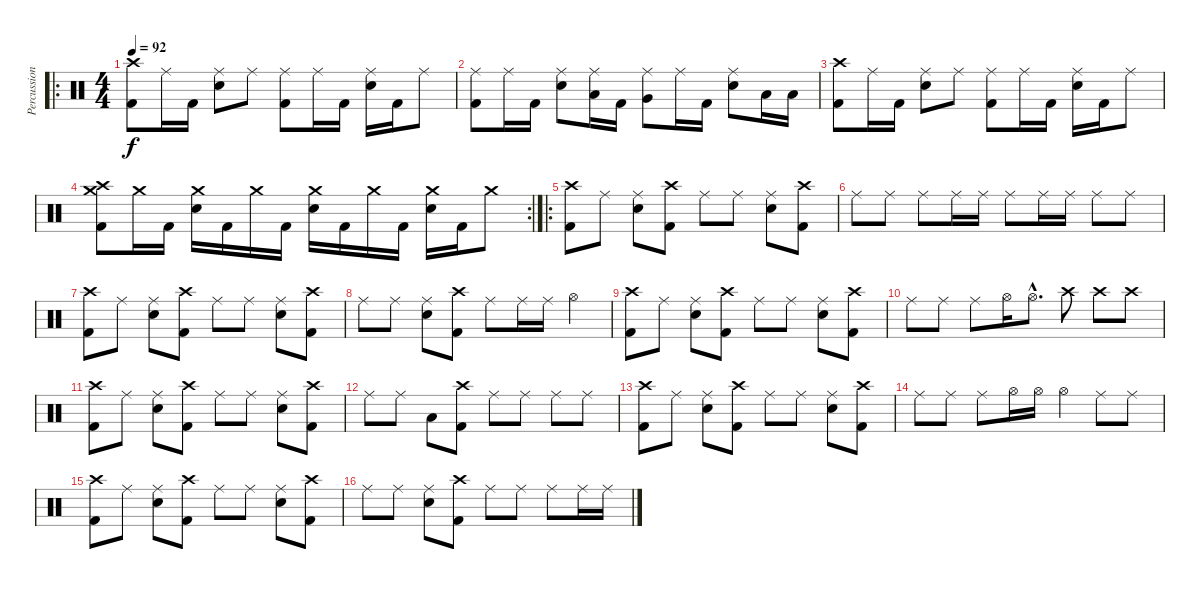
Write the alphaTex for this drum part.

\track ("Percussions" "Percussion") {instrument percussion}
\staff {score}
\articulation defaults
\ro
\ts (4 4)
\tempo 92
\clef neutral
\ks c
("Crash high (hit)" "Kick (hit) 2").8{dy f} "Ride (middle)".16 "Kick (hit) 2".16 ("Ride (middle)" "Electric Snare (hit)").8 "Ride (middle)".8 ("Ride (middle)" "Kick (hit) 2").8 "Ride (middle)".16 "Kick (hit) 2".16 ("Ride (middle)" "Electric Snare (hit)").16 "Kick (hit) 2".16 "Ride (middle)".8 |
("Ride (middle)" "Kick (hit) 2").8 "Ride (middle)".16 "Kick (hit) 2".16 ("Ride (middle)" "Electric Snare (hit)").8 ("Ride (middle)" "Low Tom (hit)").16 "Kick (hit) 2".16 ("Ride (middle)" "Very Low Tom (hit)").8 "Ride (middle)".16 "Kick (hit) 2".16 ("Ride (middle)" "Electric Snare (hit)").8 "Low Floor Tom (hit)".16 "Low Floor Tom (hit)".16 |
("Crash high (hit)" "Kick (hit) 2").8 "Ride (middle)".16 "Kick (hit) 2".16 ("Ride (middle)" "Electric Snare (hit)").8 "Ride (middle)".8 ("Ride (middle)" "Kick (hit) 2").8 "Ride (middle)".16 "Kick (hit) 2".16 ("Ride (middle)" "Electric Snare (hit)").16 "Kick (hit) 2".16 "Ride (middle)".8 |
\rc 2
("Crash high (hit)" "Crash medium (hit)" "Kick (hit) 2").8 "Crash medium (hit)".16 "Kick (hit) 2".16 ("Crash medium (hit)" "Electric Snare (hit)").16 "Kick (hit) 2".16 "Crash medium (hit)".16 "Kick (hit) 2".16 ("Crash medium (hit)" "Electric Snare (hit)").16 "Kick (hit) 2".16 "Crash medium (hit)".16 "Kick (hit) 2".16 ("Crash medium (hit)" "Electric Snare (hit)").16 "Kick (hit) 2".16 "Crash medium (hit)".8 |
\ro
("Crash high (hit)" "Kick (hit) 2").8 "Ride (middle)".8 ("Ride (middle)" "Electric Snare (hit)").8 ("Crash high (hit)" "Kick (hit) 2").8 "Ride (middle)".8 "Ride (middle)".8 ("Ride (middle)" "Electric Snare (hit)").8 ("Crash high (hit)" "Kick (hit) 2").8 |
"Ride (middle)".8 "Ride (middle)".8 "Ride (middle)".8 "Ride (middle)".16 "Ride (middle)".16 "Ride (middle)".8 "Ride (middle)".16 "Ride (middle)".16 "Ride (middle)".8 "Ride (middle)".8 |
("Crash high (hit)" "Kick (hit) 2").8 "Ride (middle)".8 ("Ride (middle)" "Electric Snare (hit)").8 ("Crash high (hit)" "Kick (hit) 2").8 "Ride (middle)".8 "Ride (middle)".8 ("Ride (middle)" "Electric Snare (hit)").8 ("Crash high (hit)" "Kick (hit) 2").8 |
"Ride (middle)".8 "Ride (middle)".8 ("Ride (middle)" "Electric Snare (hit)").8 ("Crash high (hit)" "Kick (hit) 2").8 "Ride (middle)".8 "Ride (middle)".16 "Ride (middle)".16 "Hi-Hat (open)".4 |
("Crash high (hit)" "Kick (hit) 2").8 "Ride (middle)".8 ("Ride (middle)" "Electric Snare (hit)").8 ("Crash high (hit)" "Kick (hit) 2").8 "Ride (middle)".8 "Ride (middle)".8 ("Ride (middle)" "Electric Snare (hit)").8 ("Crash high (hit)" "Kick (hit) 2").8 |
"Ride (middle)".8 "Ride (middle)".8 "Ride (middle)".8 "Hi-Hat (open)".16 "Hi-Hat (open)"{hac}.8{d} "Crash high (hit)".8 "Crash high (hit)".8 "Crash high (hit)".8 |
("Crash high (hit)" "Kick (hit) 2").8 "Ride (middle)".8 ("Ride (middle)" "Electric Snare (hit)").8 ("Crash high (hit)" "Kick (hit) 2").8 "Ride (middle)".8 "Ride (middle)".8 ("Ride (middle)" "Electric Snare (hit)").8 ("Crash high (hit)" "Kick (hit) 2").8 |
"Ride (middle)".8 "Ride (middle)".8 "Low Tom (hit)".8 ("Crash high (hit)" "Kick (hit) 2").8 "Ride (middle)".8 "Ride (middle)".8 "Ride (middle)".8 "Ride (middle)".8 |
("Crash high (hit)" "Kick (hit) 2").8 "Ride (middle)".8 ("Ride (middle)" "Electric Snare (hit)").8 ("Crash high (hit)" "Kick (hit) 2").8 "Ride (middle)".8 "Ride (middle)".8 ("Ride (middle)" "Electric Snare (hit)").8 ("Crash high (hit)" "Kick (hit) 2").8 |
"Ride (middle)".8 "Ride (middle)".8 "Ride (middle)".8 "Hi-Hat (open)".16 "Hi-Hat (open)".16 "Hi-Hat (open)".4 "Ride (middle)".8 "Ride (middle)".8 |
("Crash high (hit)" "Kick (hit) 2").8 "Ride (middle)".8 ("Ride (middle)" "Electric Snare (hit)").8 ("Crash high (hit)" "Kick (hit) 2").8 "Ride (middle)".8 "Ride (middle)".8 ("Ride (middle)" "Electric Snare (hit)").8 ("Crash high (hit)" "Kick (hit) 2").8 |
"Ride (middle)".8 "Ride (middle)".8 ("Ride (middle)" "Electric Snare (hit)").8 ("Crash high (hit)" "Kick (hit) 2").8 "Ride (middle)".8 "Ride (middle)".8 "Ride (middle)".8 "Ride (middle)".16 "Ride (middle)".16
